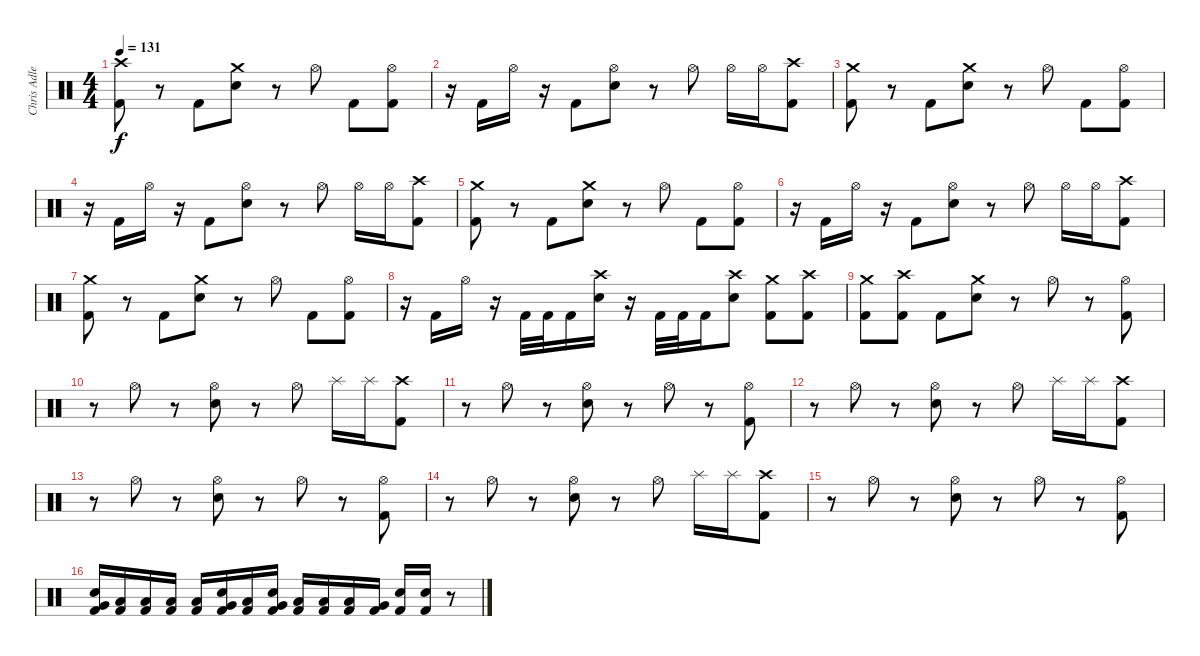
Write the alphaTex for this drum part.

\track ("Chris Adler - Drums" "Chris Adle") {instrument percussion}
\staff {score}
\articulation defaults
\ts (4 4)
\tempo 131
\clef neutral
\ks c
("Crash high (hit)" "Kick (hit) 2").8{dy f} r.8 "Kick (hit) 2".8 ("Crash medium (hit)" "Snare (hit) 2").8 r.8 "Hi-Hat (open)".8 "Kick (hit) 2".8 ("Hi-Hat (open)" "Kick (hit) 2").8 |
r.16 "Kick (hit) 2".16 "Hi-Hat (open)".16 r.16 "Kick (hit) 2".8 ("Hi-Hat (open)" "Snare (hit) 2").8 r.8 "Hi-Hat (open)".8 "Hi-Hat (open)".16 "Hi-Hat (open)".16 ("Crash high (hit)" "Kick (hit) 2").8 |
("Crash medium (hit)" "Kick (hit) 2").8 r.8 "Kick (hit) 2".8 ("Crash medium (hit)" "Snare (hit) 2").8 r.8 "Hi-Hat (open)".8 "Kick (hit) 2".8 ("Hi-Hat (open)" "Kick (hit) 2").8 |
r.16 "Kick (hit) 2".16 "Hi-Hat (open)".16 r.16 "Kick (hit) 2".8 ("Hi-Hat (open)" "Snare (hit) 2").8 r.8 "Hi-Hat (open)".8 "Hi-Hat (open)".16 "Hi-Hat (open)".16 ("Crash high (hit)" "Kick (hit) 2").8 |
("Crash medium (hit)" "Kick (hit) 2").8 r.8 "Kick (hit) 2".8 ("Crash medium (hit)" "Snare (hit) 2").8 r.8 "Hi-Hat (open)".8 "Kick (hit) 2".8 ("Hi-Hat (open)" "Kick (hit) 2").8 |
r.16 "Kick (hit) 2".16 "Hi-Hat (open)".16 r.16 "Kick (hit) 2".8 ("Hi-Hat (open)" "Snare (hit) 2").8 r.8 "Hi-Hat (open)".8 "Hi-Hat (open)".16 "Hi-Hat (open)".16 ("Crash high (hit)" "Kick (hit) 2").8 |
("Crash medium (hit)" "Kick (hit) 2").8 r.8 "Kick (hit) 2".8 ("Crash medium (hit)" "Snare (hit) 2").8 r.8 "Hi-Hat (open)".8 "Kick (hit) 2".8 ("Hi-Hat (open)" "Kick (hit) 2").8 |
r.16 "Kick (hit) 2".16 "Hi-Hat (open)".16 r.16 "Kick (hit) 2".32 "Kick (hit) 2".32 "Kick (hit) 2".16 ("Crash high (hit)" "Snare (hit) 2").16 r.16 "Kick (hit) 2".32 "Kick (hit) 2".32 "Kick (hit) 2".16 ("Crash high (hit)" "Snare (hit) 2").8 ("Crash medium (hit)" "Kick (hit) 2").8 ("Crash high (hit)" "Kick (hit) 2").8 |
("Crash medium (hit)" "Kick (hit) 2").8 ("Crash high (hit)" "Kick (hit) 2").8 "Kick (hit) 2".8 ("Crash medium (hit)" "Snare (hit) 2").8 r.8 "Hi-Hat (open)".8 r.8 ("Hi-Hat (open)" "Kick (hit) 2").8 |
r.8 "Hi-Hat (open)".8 r.8 ("Hi-Hat (open)" "Snare (hit) 2").8 r.8 "Hi-Hat (open)".8 "Splash (hit)".16 "Splash (hit)".16 ("Crash high (hit)" "Kick (hit) 2").8 |
r.8 "Hi-Hat (open)".8 r.8 ("Hi-Hat (open)" "Snare (hit) 2").8 r.8 "Hi-Hat (open)".8 r.8 ("Hi-Hat (open)" "Kick (hit) 2").8 |
r.8 "Hi-Hat (open)".8 r.8 ("Hi-Hat (open)" "Snare (hit) 2").8 r.8 "Hi-Hat (open)".8 "Splash (hit)".16 "Splash (hit)".16 ("Crash high (hit)" "Kick (hit) 2").8 |
r.8 "Hi-Hat (open)".8 r.8 ("Hi-Hat (open)" "Snare (hit) 2").8 r.8 "Hi-Hat (open)".8 r.8 ("Hi-Hat (open)" "Kick (hit) 2").8 |
r.8 "Hi-Hat (open)".8 r.8 ("Hi-Hat (open)" "Snare (hit) 2").8 r.8 "Hi-Hat (open)".8 "Splash (hit)".16 "Splash (hit)".16 ("Crash high (hit)" "Kick (hit) 2").8 |
r.8 "Hi-Hat (open)".8 r.8 ("Hi-Hat (open)" "Snare (hit) 2").8 r.8 "Hi-Hat (open)".8 r.8 ("Hi-Hat (open)" "Kick (hit) 2").8 |
("Snare (hit) 2" "Very Low Tom (hit)" "Kick (hit) 2").16 ("Low Floor Tom (hit)" "Kick (hit) 2").16 ("Low Floor Tom (hit)" "Kick (hit) 2").16 ("Low Floor Tom (hit)" "Kick (hit) 2").16 ("Low Floor Tom (hit)" "Kick (hit) 2").16 ("Snare (hit) 2" "Very Low Tom (hit)" "Kick (hit) 2").16 ("Low Floor Tom (hit)" "Kick (hit) 2").16 ("Snare (hit) 2" "Very Low Tom (hit)" "Kick (hit) 2").16 ("Low Floor Tom (hit)" "Kick (hit) 2").16 ("Low Floor Tom (hit)" "Kick (hit) 2").16 ("Low Floor Tom (hit)" "Kick (hit) 2").16 ("Very Low Tom (hit)" "Kick (hit) 2").16 ("Snare (hit) 2" "Kick (hit) 2").16 ("Snare (hit) 2" "Kick (hit) 2").16 r.8
